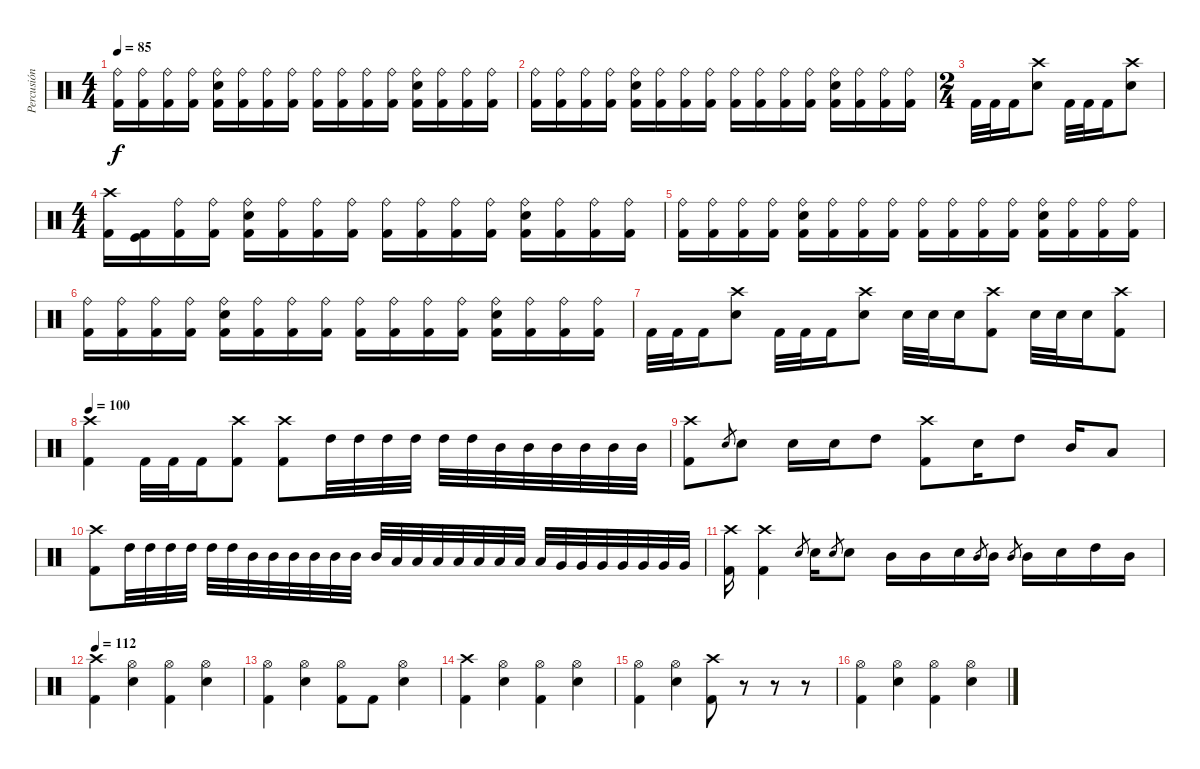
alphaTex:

\track ("Percusión" "Percusión") {instrument percussion}
\staff {score}
\articulation defaults
\ts (4 4)
\tempo 85
\clef neutral
\ks c
("Ride (bell)" "Kick (hit) 2").16{dy f} ("Ride (bell)" "Kick (hit) 2").16 ("Ride (bell)" "Kick (hit) 2").16 ("Ride (bell)" "Kick (hit) 2").16 ("Ride (bell)" "Snare (hit) 2" "Kick (hit) 2").16 ("Ride (bell)" "Kick (hit) 2").16 ("Ride (bell)" "Kick (hit) 2").16 ("Ride (bell)" "Kick (hit) 2").16 ("Ride (bell)" "Kick (hit) 2").16 ("Ride (bell)" "Kick (hit) 2").16 ("Ride (bell)" "Kick (hit) 2").16 ("Ride (bell)" "Kick (hit) 2").16 ("Ride (bell)" "Snare (hit) 2" "Kick (hit) 2").16 ("Ride (bell)" "Kick (hit) 2").16 ("Ride (bell)" "Kick (hit) 2").16 ("Ride (bell)" "Kick (hit) 2").16 |
("Ride (bell)" "Kick (hit) 2").16 ("Ride (bell)" "Kick (hit) 2").16 ("Ride (bell)" "Kick (hit) 2").16 ("Ride (bell)" "Kick (hit) 2").16 ("Ride (bell)" "Snare (hit) 2" "Kick (hit) 2").16 ("Ride (bell)" "Kick (hit) 2").16 ("Ride (bell)" "Kick (hit) 2").16 ("Ride (bell)" "Kick (hit) 2").16 ("Ride (bell)" "Kick (hit) 2").16 ("Ride (bell)" "Kick (hit) 2").16 ("Ride (bell)" "Kick (hit) 2").16 ("Ride (bell)" "Kick (hit) 2").16 ("Ride (bell)" "Snare (hit) 2" "Kick (hit) 2").16 ("Ride (bell)" "Kick (hit) 2").16 ("Ride (bell)" "Kick (hit) 2").16 ("Ride (bell)" "Kick (hit) 2").16 |
\ts (2 4)
"Kick (hit) 2".32 "Kick (hit) 2".32 "Kick (hit) 2".16 ("Crash high (hit)" "Snare (hit) 2").8 "Kick (hit) 2".32 "Kick (hit) 2".32 "Kick (hit) 2".16 ("Crash high (hit)" "Snare (hit) 2").8 |
\ts (4 4)
("Crash high (hit)" "Kick (hit) 2").16 ("Kick (hit)" "Kick (hit) 2").16 ("Ride (bell)" "Kick (hit) 2").16 ("Ride (bell)" "Kick (hit) 2").16 ("Ride (bell)" "Snare (hit) 2" "Kick (hit) 2").16 ("Ride (bell)" "Kick (hit) 2").16 ("Ride (bell)" "Kick (hit) 2").16 ("Ride (bell)" "Kick (hit) 2").16 ("Ride (bell)" "Kick (hit) 2").16 ("Ride (bell)" "Kick (hit) 2").16 ("Ride (bell)" "Kick (hit) 2").16 ("Ride (bell)" "Kick (hit) 2").16 ("Ride (bell)" "Snare (hit) 2" "Kick (hit) 2").16 ("Ride (bell)" "Kick (hit) 2").16 ("Ride (bell)" "Kick (hit) 2").16 ("Ride (bell)" "Kick (hit) 2").16 |
("Ride (bell)" "Kick (hit) 2").16 ("Ride (bell)" "Kick (hit) 2").16 ("Ride (bell)" "Kick (hit) 2").16 ("Ride (bell)" "Kick (hit) 2").16 ("Ride (bell)" "Snare (hit) 2" "Kick (hit) 2").16 ("Ride (bell)" "Kick (hit) 2").16 ("Ride (bell)" "Kick (hit) 2").16 ("Ride (bell)" "Kick (hit) 2").16 ("Ride (bell)" "Kick (hit) 2").16 ("Ride (bell)" "Kick (hit) 2").16 ("Ride (bell)" "Kick (hit) 2").16 ("Ride (bell)" "Kick (hit) 2").16 ("Ride (bell)" "Snare (hit) 2" "Kick (hit) 2").16 ("Ride (bell)" "Kick (hit) 2").16 ("Ride (bell)" "Kick (hit) 2").16 ("Ride (bell)" "Kick (hit) 2").16 |
("Ride (bell)" "Kick (hit) 2").16 ("Ride (bell)" "Kick (hit) 2").16 ("Ride (bell)" "Kick (hit) 2").16 ("Ride (bell)" "Kick (hit) 2").16 ("Ride (bell)" "Snare (hit) 2" "Kick (hit) 2").16 ("Ride (bell)" "Kick (hit) 2").16 ("Ride (bell)" "Kick (hit) 2").16 ("Ride (bell)" "Kick (hit) 2").16 ("Ride (bell)" "Kick (hit) 2").16 ("Ride (bell)" "Kick (hit) 2").16 ("Ride (bell)" "Kick (hit) 2").16 ("Ride (bell)" "Kick (hit) 2").16 ("Ride (bell)" "Snare (hit) 2" "Kick (hit) 2").16 ("Ride (bell)" "Kick (hit) 2").16 ("Ride (bell)" "Kick (hit) 2").16 ("Ride (bell)" "Kick (hit) 2").16 |
"Kick (hit) 2".32 "Kick (hit) 2".32 "Kick (hit) 2".16 ("Crash high (hit)" "Snare (hit) 2").8 "Kick (hit) 2".32 "Kick (hit) 2".32 "Kick (hit) 2".16 ("Crash high (hit)" "Snare (hit) 2").8 "Snare (hit) 2".32 "Snare (hit) 2".32 "Snare (hit) 2".16 ("Crash high (hit)" "Kick (hit) 2").8 "Snare (hit) 2".32 "Snare (hit) 2".32 "Snare (hit) 2".16 ("Crash high (hit)" "Kick (hit) 2").8 |
\tempo 100
("Crash high (hit)" "Kick (hit) 2").4 "Kick (hit) 2".32 "Kick (hit) 2".32 "Kick (hit) 2".16 ("Kick (hit) 2" "Crash high (hit)").8 ("Kick (hit) 2" "Crash high (hit)").8 "High Tom (hit)".32 "High Tom (hit)".32 "High Tom (hit)".32 "High Tom (hit)".32 "High Tom (hit)".32 "High Tom (hit)".32 "Mid Tom (hit)".32 "Mid Tom (hit)".32 "Mid Tom (hit)".32 "Mid Tom (hit)".32 "Mid Tom (hit)".32 "Mid Tom (hit)".32 |
("Crash high (hit)" "Kick (hit) 2").8 "Snare (hit) 2".8{gr} "Snare (hit) 2".8 "Snare (hit) 2".16 "Snare (hit) 2".16 "High Tom (hit)".8 ("Crash high (hit)" "Kick (hit) 2").8 "Snare (hit) 2".16 "High Tom (hit)".8 "Mid Tom (hit)".16 "Low Tom (hit)".8 |
("Crash high (hit)" "Kick (hit) 2").8 "High Tom (hit)".32 "High Tom (hit)".32 "High Tom (hit)".32 "High Tom (hit)".32 "High Tom (hit)".32 "High Tom (hit)".32 "Mid Tom (hit)".32 "Mid Tom (hit)".32 "Mid Tom (hit)".32 "Mid Tom (hit)".32 "Mid Tom (hit)".32 "Mid Tom (hit)".32 "Mid Tom (hit)".32 "Low Tom (hit)".32 "Low Tom (hit)".32 "Low Tom (hit)".32 "Low Tom (hit)".32 "Low Tom (hit)".32 "Low Tom (hit)".32 "Low Tom (hit)".32 "Low Tom (hit)".32 "Very Low Tom (hit)".32 "Very Low Tom (hit)".32 "Very Low Tom (hit)".32 "Very Low Tom (hit)".32 "Very Low Tom (hit)".32 "Very Low Tom (hit)".32 "Very Low Tom (hit)".32 |
("Crash high (hit)" "Kick (hit) 2").16 ("Crash high (hit)" "Kick (hit) 2").4 "Snare (hit) 2".8{gr} "Snare (hit) 2".16 "Snare (hit) 2".8{gr} "Snare (hit) 2".8 "Mid Tom (hit)".16 "Mid Tom (hit)".16 "Snare (hit) 2".16 "Mid Tom (hit)".8{gr} "Mid Tom (hit)".16 "Mid Tom (hit)".8{gr} "Mid Tom (hit)".16 "Snare (hit) 2".16 "High Tom (hit)".16 "Mid Tom (hit)".16 |
\tempo 112
("Crash high (hit)" "Kick (hit) 2").4 ("Hi-Hat (open)" "Snare (hit) 2").4 ("Hi-Hat (open)" "Kick (hit) 2").4 ("Hi-Hat (open)" "Snare (hit) 2").4 |
("Hi-Hat (open)" "Kick (hit) 2").4 ("Hi-Hat (open)" "Snare (hit) 2").4 ("Hi-Hat (open)" "Kick (hit) 2").8 "Kick (hit) 2".8 ("Hi-Hat (open)" "Snare (hit) 2").4 |
("Crash high (hit)" "Kick (hit) 2").4 ("Hi-Hat (open)" "Snare (hit) 2").4 ("Hi-Hat (open)" "Kick (hit) 2").4 ("Hi-Hat (open)" "Snare (hit) 2").4 |
("Hi-Hat (open)" "Kick (hit) 2").4 ("Hi-Hat (open)" "Snare (hit) 2").4 ("Crash high (hit)" "Kick (hit) 2").8 r.8 r.8 r.8 |
("Hi-Hat (open)" "Kick (hit) 2").4 ("Hi-Hat (open)" "Snare (hit) 2").4 ("Hi-Hat (open)" "Kick (hit) 2").4 ("Hi-Hat (open)" "Snare (hit) 2").4
